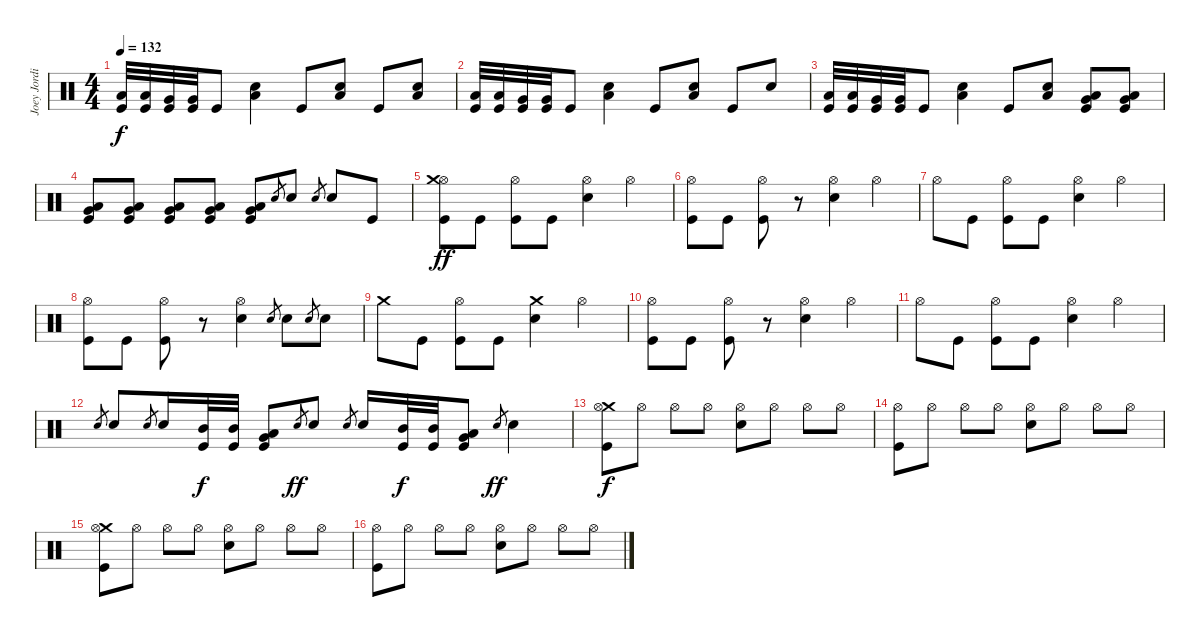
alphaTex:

\track ("Joey Jordison" "Joey Jordi") {instrument percussion}
\staff {score}
\articulation defaults
\ts (4 4)
\tempo 132
\clef neutral
\ks c
("Kick (hit)" "Low Tom (hit)").32{dy f} ("Kick (hit)" "Low Tom (hit)").32 ("Kick (hit)" "Very Low Tom (hit)").32 ("Kick (hit)" "Very Low Tom (hit)").32 "Kick (hit)".8 ("Snare (hit) 2" "Low Floor Tom (hit)").4 "Kick (hit)".8 ("Snare (hit) 2" "Low Floor Tom (hit)").8 "Kick (hit)".8 ("Snare (hit) 2" "Low Floor Tom (hit)").8 |
("Kick (hit)" "Low Tom (hit)").32 ("Kick (hit)" "Low Tom (hit)").32 ("Kick (hit)" "Very Low Tom (hit)").32 ("Kick (hit)" "Very Low Tom (hit)").32 "Kick (hit)".8 ("Snare (hit) 2" "Low Floor Tom (hit)").4 "Kick (hit)".8 ("Snare (hit) 2" "Low Floor Tom (hit)").8 "Kick (hit)".8 "Snare (hit) 2".8 |
("Kick (hit)" "Low Tom (hit)").32 ("Kick (hit)" "Low Tom (hit)").32 ("Kick (hit)" "Very Low Tom (hit)").32 ("Kick (hit)" "Very Low Tom (hit)").32 "Kick (hit)".8 ("Snare (hit) 2" "Low Floor Tom (hit)").4 "Kick (hit)".8 ("Snare (hit) 2" "Low Floor Tom (hit)").8 ("Low Floor Tom (hit)" "Very Low Tom (hit)" "Kick (hit)").8 ("Low Floor Tom (hit)" "Very Low Tom (hit)" "Kick (hit)").8 |
("Low Floor Tom (hit)" "Very Low Tom (hit)" "Kick (hit)").8 ("Low Floor Tom (hit)" "Very Low Tom (hit)" "Kick (hit)").8 ("Low Floor Tom (hit)" "Very Low Tom (hit)" "Kick (hit)").8 ("Low Floor Tom (hit)" "Very Low Tom (hit)" "Kick (hit)").8 ("Low Floor Tom (hit)" "Very Low Tom (hit)" "Kick (hit)").8 "Snare (hit)".8{gr} "Snare (hit) 2".8 "Snare (hit)".8{gr} "Snare (hit) 2".8 "Kick (hit)".8 |
("Kick (hit)" "Hi-Hat (open)" "Crash medium (hit)").8{dy ff} "Kick (hit)".8 ("Kick (hit)" "Hi-Hat (open)").8 "Kick (hit)".8 ("Snare (hit) 2" "Hi-Hat (open)").4 "Hi-Hat (open)".4 |
("Kick (hit)" "Hi-Hat (open)").8 "Kick (hit)".8 ("Hi-Hat (open)" "Kick (hit)").8 r.8 ("Snare (hit) 2" "Hi-Hat (open)").4 "Hi-Hat (open)".4 |
"Hi-Hat (open)".8 "Kick (hit)".8 ("Kick (hit)" "Hi-Hat (open)").8 "Kick (hit)".8 ("Snare (hit) 2" "Hi-Hat (open)").4 "Hi-Hat (open)".4 |
("Kick (hit)" "Hi-Hat (open)").8 "Kick (hit)".8 ("Hi-Hat (open)" "Kick (hit)").8 r.8 ("Hi-Hat (open)" "Snare (hit) 2").4 "Snare (hit)".8{gr} "Snare (hit) 2".8 "Snare (hit)".8{gr} "Snare (hit) 2".8 |
"Crash medium (hit)".8 "Kick (hit)".8 ("Kick (hit)" "Hi-Hat (open)").8 "Kick (hit)".8 ("Snare (hit) 2" "Crash medium (hit)").4 "Hi-Hat (open)".4 |
("Kick (hit)" "Hi-Hat (open)").8 "Kick (hit)".8 ("Hi-Hat (open)" "Kick (hit)").8 r.8 ("Hi-Hat (open)" "Snare (hit) 2").4 "Hi-Hat (open)".4 |
"Hi-Hat (open)".8 "Kick (hit)".8 ("Kick (hit)" "Hi-Hat (open)").8 "Kick (hit)".8 ("Snare (hit) 2" "Hi-Hat (open)").4 "Hi-Hat (open)".4 |
"Snare (hit)".8{gr} "Snare (hit) 2".8 "Snare (hit)".8{gr} "Snare (hit) 2".16 ("Kick (hit)" "Mid Tom (hit)").32{dy f} ("Kick (hit)" "Mid Tom (hit)").32 ("Kick (hit)" "Very Low Tom (hit)" "Low Floor Tom (hit)").8 "Snare (hit)".8{gr dy ff} "Snare (hit) 2".8 "Snare (hit)".8{gr} "Snare (hit) 2".16 ("Kick (hit)" "Mid Tom (hit)").32{dy f} ("Kick (hit)" "Mid Tom (hit)").32 ("Kick (hit)" "Very Low Tom (hit)" "Low Floor Tom (hit)").8 "Snare (hit)".8{gr dy ff} "Snare (hit) 2".4 |
("Kick (hit)" "Crash medium (hit)" "Hi-Hat (open)").8{dy f} "Hi-Hat (open)".8 "Hi-Hat (open)".8 "Hi-Hat (open)".8 ("Snare (hit) 2" "Hi-Hat (open)").8 "Hi-Hat (open)".8 "Hi-Hat (open)".8 "Hi-Hat (open)".8 |
("Kick (hit)" "Hi-Hat (open)").8 "Hi-Hat (open)".8 "Hi-Hat (open)".8 "Hi-Hat (open)".8 ("Snare (hit) 2" "Hi-Hat (open)").8 "Hi-Hat (open)".8 "Hi-Hat (open)".8 "Hi-Hat (open)".8 |
("Kick (hit)" "Crash medium (hit)" "Hi-Hat (open)").8 "Hi-Hat (open)".8 "Hi-Hat (open)".8 "Hi-Hat (open)".8 ("Snare (hit) 2" "Hi-Hat (open)").8 "Hi-Hat (open)".8 "Hi-Hat (open)".8 "Hi-Hat (open)".8 |
("Kick (hit)" "Hi-Hat (open)").8 "Hi-Hat (open)".8 "Hi-Hat (open)".8 "Hi-Hat (open)".8 ("Snare (hit) 2" "Hi-Hat (open)").8 "Hi-Hat (open)".8 "Hi-Hat (open)".8 "Hi-Hat (open)".8
